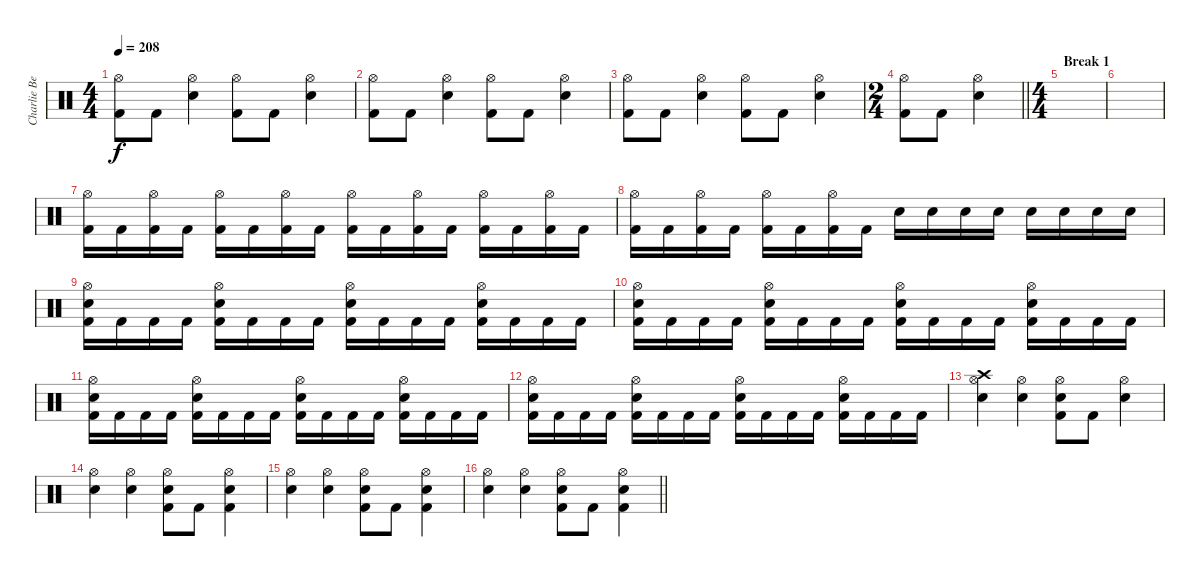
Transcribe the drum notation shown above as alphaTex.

\track ("Charlie Benate" "Charlie Be") {instrument percussion}
\staff {score}
\articulation defaults
\ts (4 4)
\tempo 208
\clef neutral
\ks c
("Hi-Hat (open)" "Kick (hit) 2").8{dy f} "Kick (hit) 2".8 ("Hi-Hat (open)" "Electric Snare (hit)").4 ("Hi-Hat (open)" "Kick (hit) 2").8 "Kick (hit) 2".8 ("Hi-Hat (open)" "Electric Snare (hit)").4 |
("Hi-Hat (open)" "Kick (hit) 2").8 "Kick (hit) 2".8 ("Hi-Hat (open)" "Electric Snare (hit)").4 ("Hi-Hat (open)" "Kick (hit) 2").8 "Kick (hit) 2".8 ("Hi-Hat (open)" "Electric Snare (hit)").4 |
("Hi-Hat (open)" "Kick (hit) 2").8 "Kick (hit) 2".8 ("Hi-Hat (open)" "Electric Snare (hit)").4 ("Hi-Hat (open)" "Kick (hit) 2").8 "Kick (hit) 2".8 ("Hi-Hat (open)" "Electric Snare (hit)").4 |
\ts (2 4)
\barLineRight lightlight
("Hi-Hat (open)" "Kick (hit) 2").8 "Kick (hit) 2".8 ("Hi-Hat (open)" "Electric Snare (hit)").4 |
\ts (4 4)
\section ("" "Break 1")
|
|
("Hi-Hat (open)" "Kick (hit) 2").16 "Kick (hit) 2".16 ("Hi-Hat (open)" "Kick (hit) 2").16 "Kick (hit) 2".16 ("Hi-Hat (open)" "Kick (hit) 2").16 "Kick (hit) 2".16 ("Hi-Hat (open)" "Kick (hit) 2").16 "Kick (hit) 2".16 ("Hi-Hat (open)" "Kick (hit) 2").16 "Kick (hit) 2".16 ("Hi-Hat (open)" "Kick (hit) 2").16 "Kick (hit) 2".16 ("Hi-Hat (open)" "Kick (hit) 2").16 "Kick (hit) 2".16 ("Hi-Hat (open)" "Kick (hit) 2").16 "Kick (hit) 2".16 |
("Hi-Hat (open)" "Kick (hit) 2").16 "Kick (hit) 2".16 ("Hi-Hat (open)" "Kick (hit) 2").16 "Kick (hit) 2".16 ("Hi-Hat (open)" "Kick (hit) 2").16 "Kick (hit) 2".16 ("Hi-Hat (open)" "Kick (hit) 2").16 "Kick (hit) 2".16 "Electric Snare (hit)".16 "Electric Snare (hit)".16 "Electric Snare (hit)".16 "Electric Snare (hit)".16 "Electric Snare (hit)".16 "Electric Snare (hit)".16 "Electric Snare (hit)".16 "Electric Snare (hit)".16 |
("Hi-Hat (open)" "Electric Snare (hit)" "Kick (hit) 2").16 "Kick (hit) 2".16 "Kick (hit) 2".16 "Kick (hit) 2".16 ("Hi-Hat (open)" "Electric Snare (hit)" "Kick (hit) 2").16 "Kick (hit) 2".16 "Kick (hit) 2".16 "Kick (hit) 2".16 ("Hi-Hat (open)" "Electric Snare (hit)" "Kick (hit) 2").16 "Kick (hit) 2".16 "Kick (hit) 2".16 "Kick (hit) 2".16 ("Hi-Hat (open)" "Electric Snare (hit)" "Kick (hit) 2").16 "Kick (hit) 2".16 "Kick (hit) 2".16 "Kick (hit) 2".16 |
("Hi-Hat (open)" "Electric Snare (hit)" "Kick (hit) 2").16 "Kick (hit) 2".16 "Kick (hit) 2".16 "Kick (hit) 2".16 ("Hi-Hat (open)" "Electric Snare (hit)" "Kick (hit) 2").16 "Kick (hit) 2".16 "Kick (hit) 2".16 "Kick (hit) 2".16 ("Hi-Hat (open)" "Electric Snare (hit)" "Kick (hit) 2").16 "Kick (hit) 2".16 "Kick (hit) 2".16 "Kick (hit) 2".16 ("Hi-Hat (open)" "Electric Snare (hit)" "Kick (hit) 2").16 "Kick (hit) 2".16 "Kick (hit) 2".16 "Kick (hit) 2".16 |
("Hi-Hat (open)" "Electric Snare (hit)" "Kick (hit) 2").16 "Kick (hit) 2".16 "Kick (hit) 2".16 "Kick (hit) 2".16 ("Hi-Hat (open)" "Electric Snare (hit)" "Kick (hit) 2").16 "Kick (hit) 2".16 "Kick (hit) 2".16 "Kick (hit) 2".16 ("Hi-Hat (open)" "Electric Snare (hit)" "Kick (hit) 2").16 "Kick (hit) 2".16 "Kick (hit) 2".16 "Kick (hit) 2".16 ("Hi-Hat (open)" "Electric Snare (hit)" "Kick (hit) 2").16 "Kick (hit) 2".16 "Kick (hit) 2".16 "Kick (hit) 2".16 |
("Hi-Hat (open)" "Electric Snare (hit)" "Kick (hit) 2").16 "Kick (hit) 2".16 "Kick (hit) 2".16 "Kick (hit) 2".16 ("Hi-Hat (open)" "Electric Snare (hit)" "Kick (hit) 2").16 "Kick (hit) 2".16 "Kick (hit) 2".16 "Kick (hit) 2".16 ("Hi-Hat (open)" "Electric Snare (hit)" "Kick (hit) 2").16 "Kick (hit) 2".16 "Kick (hit) 2".16 "Kick (hit) 2".16 ("Hi-Hat (open)" "Electric Snare (hit)" "Kick (hit) 2").16 "Kick (hit) 2".16 "Kick (hit) 2".16 "Kick (hit) 2".16 |
("Hi-Hat (open)" "Electric Snare (hit)" "Crash high (hit)").4 ("Hi-Hat (open)" "Electric Snare (hit)").4 ("Hi-Hat (open)" "Electric Snare (hit)" "Kick (hit) 2").8 "Kick (hit) 2".8 ("Hi-Hat (open)" "Electric Snare (hit)").4 |
("Hi-Hat (open)" "Electric Snare (hit)").4 ("Hi-Hat (open)" "Electric Snare (hit)").4 ("Hi-Hat (open)" "Electric Snare (hit)" "Kick (hit) 2").8 "Kick (hit) 2".8 ("Hi-Hat (open)" "Electric Snare (hit)" "Kick (hit) 2").4 |
("Hi-Hat (open)" "Electric Snare (hit)").4 ("Hi-Hat (open)" "Electric Snare (hit)").4 ("Hi-Hat (open)" "Electric Snare (hit)" "Kick (hit) 2").8 "Kick (hit) 2".8 ("Hi-Hat (open)" "Electric Snare (hit)" "Kick (hit) 2").4 |
\barLineRight lightlight
("Hi-Hat (open)" "Electric Snare (hit)").4 ("Hi-Hat (open)" "Electric Snare (hit)").4 ("Hi-Hat (open)" "Electric Snare (hit)" "Kick (hit) 2").8 "Kick (hit) 2".8 ("Hi-Hat (open)" "Electric Snare (hit)" "Kick (hit) 2").4
